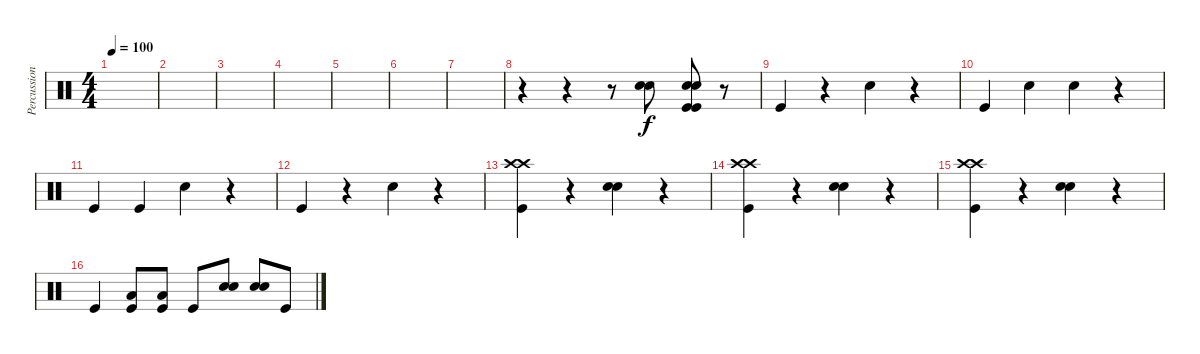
\track ("Percussions" "Percussion") {instrument percussion}
\staff {score}
\articulation defaults
\ts (4 4)
\tempo 100
\clef neutral
\ks c
|
|
|
|
|
|
|
r.4 r.4 r.8 ("Hand Clap (hit)" "Hand Clap (hit)").8 ("Hand Clap (hit)" "Hand Clap (hit)" "Kick (hit)" "Kick (hit)").8 r.8 |
"Kick (hit)".4 r.4 "Hand Clap (hit)".4 r.4 |
"Kick (hit)".4 "Hand Clap (hit)".4 "Hand Clap (hit)".4 r.4 |
"Kick (hit)".4 "Kick (hit)".4 "Hand Clap (hit)".4 r.4 |
"Kick (hit)".4 r.4 "Hand Clap (hit)".4 r.4 |
("Crash high (hit)" "Crash high (hit)" "Kick (hit)").4 r.4 ("Hand Clap (hit)" "Hand Clap (hit)").4 r.4 |
("Crash high (hit)" "Crash high (hit)" "Kick (hit)").4 r.4 ("Hand Clap (hit)" "Hand Clap (hit)").4 r.4 |
("Crash high (hit)" "Crash high (hit)" "Kick (hit)").4 r.4 ("Hand Clap (hit)" "Hand Clap (hit)").4 r.4 |
"Kick (hit)".4 ("Low Floor Tom (hit)" "Kick (hit)").8 ("Low Floor Tom (hit)" "Kick (hit)").8 "Kick (hit)".8 ("Hand Clap (hit)" "Hand Clap (hit)").8 ("Hand Clap (hit)" "Hand Clap (hit)").8 "Kick (hit)".8
